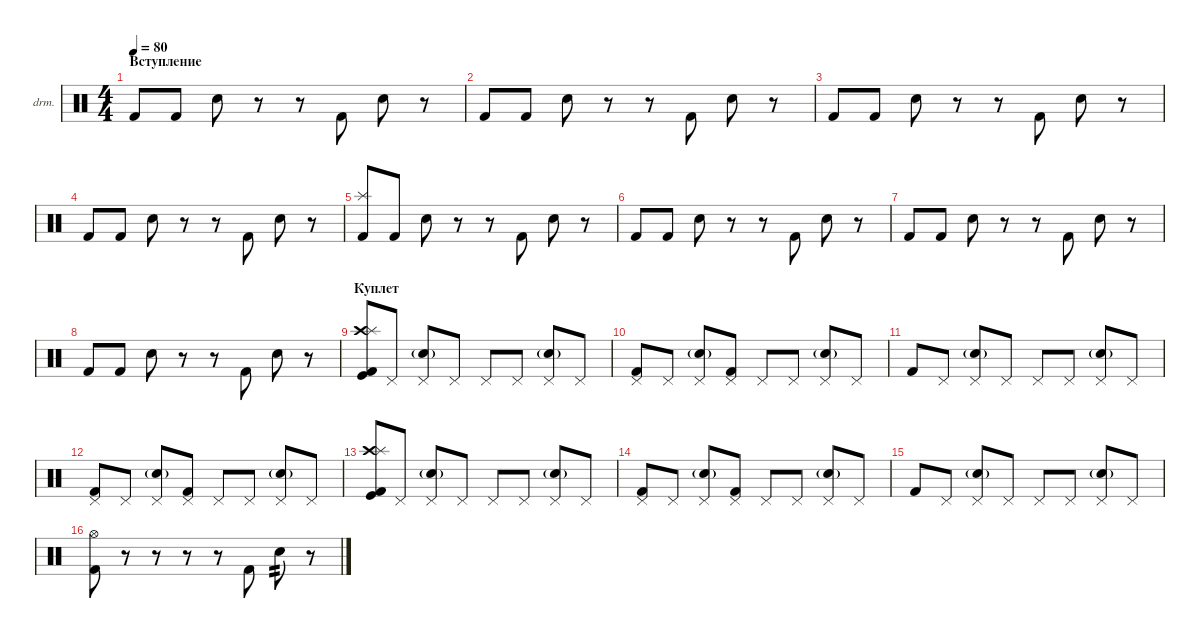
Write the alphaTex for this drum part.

\defaultSystemsLayout 4
\hideDynamics
\bracketExtendMode nobrackets
\firstSystemTrackNameOrientation horizontal
\otherSystemsTrackNameOrientation horizontal
\track ("Drumkit" "drm.") {instrument percussion}
\staff {score}
\articulation defaults
\ts (4 4)
\section ("" "Вступление")
\tempo 80
\clef neutral
\ks c "Kick (hit) 2".8{dy mf beam Up} "Kick (hit) 2".8{beam Up} "Snare (hit) 2".8{beam Down}
r.8{beam Down} r.8{beam Down} "Kick (hit) 2".8{beam Up} "Snare (hit) 2".8{beam Down} r.8{beam Down} |
"Kick (hit) 2".8{beam Up} "Kick (hit) 2".8{beam Up} "Snare (hit) 2".8{beam Down} r.8{beam Down} r.8{beam Down} "Kick (hit) 2".8{beam Up} "Snare (hit) 2".8{beam Down} r.8{beam Down} |
"Kick (hit) 2".8{beam Up} "Kick (hit) 2".8{beam Up} "Snare (hit) 2".8{beam Down} r.8{beam Down} r.8{beam Down} "Kick (hit) 2".8{beam Up} "Snare (hit) 2".8{beam Down} r.8{beam Down} |
"Kick (hit) 2".8{beam Up} "Kick (hit) 2".8{beam Up} "Snare (hit) 2".8{beam Down} r.8{beam Down} r.8{beam Down} "Kick (hit) 2".8{beam Up} "Snare (hit) 2".8{beam Down} r.8{beam Down} |
("Kick (hit) 2" "Splash (hit)").8{beam Up} "Kick (hit) 2".8{beam Up} "Snare (hit) 2".8{beam Down} r.8{beam Down} r.8{beam Down} "Kick (hit) 2".8{beam Up} "Snare (hit) 2".8{beam Down} r.8{beam Down} |
"Kick (hit) 2".8{beam Up} "Kick (hit) 2".8{beam Up} "Snare (hit) 2".8{beam Down} r.8{beam Down} r.8{beam Down} "Kick (hit) 2".8{beam Up} "Snare (hit) 2".8{beam Down} r.8{beam Down} |
"Kick (hit) 2".8{beam Up} "Kick (hit) 2".8{beam Up} "Snare (hit) 2".8{beam Down} r.8{beam Down} r.8{beam Down} "Kick (hit) 2".8{beam Up} "Snare (hit) 2".8{beam Down} r.8{beam Down} |
"Kick (hit) 2".8{beam Up} "Kick (hit) 2".8{beam Up} "Snare (hit) 2".8{beam Down} r.8{beam Down} r.8{beam Down} "Kick (hit) 2".8{beam Up} "Snare (hit) 2".8{beam Down} r.8{beam Down} |
\section ("" "Куплет ")
("Kick (hit)" "Crash high (hit)" "Splash (hit)" "Kick (hit) 2").8{beam Up} "Pedal Hi-Hat (hit)".8{beam Up} ("Snare (hit) 2"{g} "Pedal Hi-Hat (hit)").8{beam Up} "Pedal Hi-Hat (hit)".8{beam Up} "Pedal Hi-Hat (hit)".8{beam Up} "Pedal Hi-Hat (hit)".8{beam Up} ("Snare (hit) 2"{g} "Pedal Hi-Hat (hit)").8{beam Up} "Pedal Hi-Hat (hit)".8{beam Up} |
("Kick (hit) 2" "Pedal Hi-Hat (hit)").8{beam Up} "Pedal Hi-Hat (hit)".8{beam Up} ("Snare (hit) 2"{g} "Pedal Hi-Hat (hit)").8{beam Up} ("Kick (hit) 2" "Pedal Hi-Hat (hit)").8{beam Up} "Pedal Hi-Hat (hit)".8{beam Up} "Pedal Hi-Hat (hit)".8{beam Up} ("Snare (hit) 2"{g} "Pedal Hi-Hat (hit)").8{beam Up} "Pedal Hi-Hat (hit)".8{beam Up} |
"Kick (hit) 2".8{beam Up} "Pedal Hi-Hat (hit)".8{beam Up} ("Snare (hit) 2"{g} "Pedal Hi-Hat (hit)").8{beam Up} "Pedal Hi-Hat (hit)".8{beam Up} "Pedal Hi-Hat (hit)".8{beam Up} "Pedal Hi-Hat (hit)".8{beam Up} ("Snare (hit) 2"{g} "Pedal Hi-Hat (hit)").8{beam Up} "Pedal Hi-Hat (hit)".8{beam Up} |
("Kick (hit) 2" "Pedal Hi-Hat (hit)").8{beam Up} "Pedal Hi-Hat (hit)".8{beam Up} ("Snare (hit) 2"{g} "Pedal Hi-Hat (hit)").8{beam Up} ("Kick (hit) 2" "Pedal Hi-Hat (hit)").8{beam Up} "Pedal Hi-Hat (hit)".8{beam Up} "Pedal Hi-Hat (hit)".8{beam Up} ("Snare (hit) 2"{g} "Pedal Hi-Hat (hit)").8{beam Up} "Pedal Hi-Hat (hit)".8{beam Up} |
("Kick (hit)" "Crash high (hit)" "Splash (hit)" "Kick (hit) 2").8{beam Up} "Pedal Hi-Hat (hit)".8{beam Up} ("Snare (hit) 2"{g} "Pedal Hi-Hat (hit)").8{beam Up} "Pedal Hi-Hat (hit)".8{beam Up} "Pedal Hi-Hat (hit)".8{beam Up} "Pedal Hi-Hat (hit)".8{beam Up} ("Snare (hit) 2"{g} "Pedal Hi-Hat (hit)").8{beam Up} "Pedal Hi-Hat (hit)".8{beam Up} |
("Kick (hit) 2" "Pedal Hi-Hat (hit)").8{beam Up} "Pedal Hi-Hat (hit)".8{beam Up} ("Snare (hit) 2"{g} "Pedal Hi-Hat (hit)").8{beam Up} ("Kick (hit) 2" "Pedal Hi-Hat (hit)").8{beam Up} "Pedal Hi-Hat (hit)".8{beam Up} "Pedal Hi-Hat (hit)".8{beam Up} ("Snare (hit) 2"{g} "Pedal Hi-Hat (hit)").8{beam Up} "Pedal Hi-Hat (hit)".8{beam Up} |
"Kick (hit) 2".8{beam Up} "Pedal Hi-Hat (hit)".8{beam Up} ("Snare (hit) 2"{g} "Pedal Hi-Hat (hit)").8{beam Up} "Pedal Hi-Hat (hit)".8{beam Up} "Pedal Hi-Hat (hit)".8{beam Up} "Pedal Hi-Hat (hit)".8{beam Up} ("Snare (hit) 2"{g} "Pedal Hi-Hat (hit)").8{beam Up} "Pedal Hi-Hat (hit)".8{beam Up} |
("Kick (hit) 2" "Hi-Hat (open)").8{beam Down} r.8{beam Down} r.8{beam Down} r.8{beam Down} r.8{beam Down} "Kick (hit) 2".8{beam Down} "Snare (hit) 2".8{tp 2 beam Down} r.8{beam Down}
